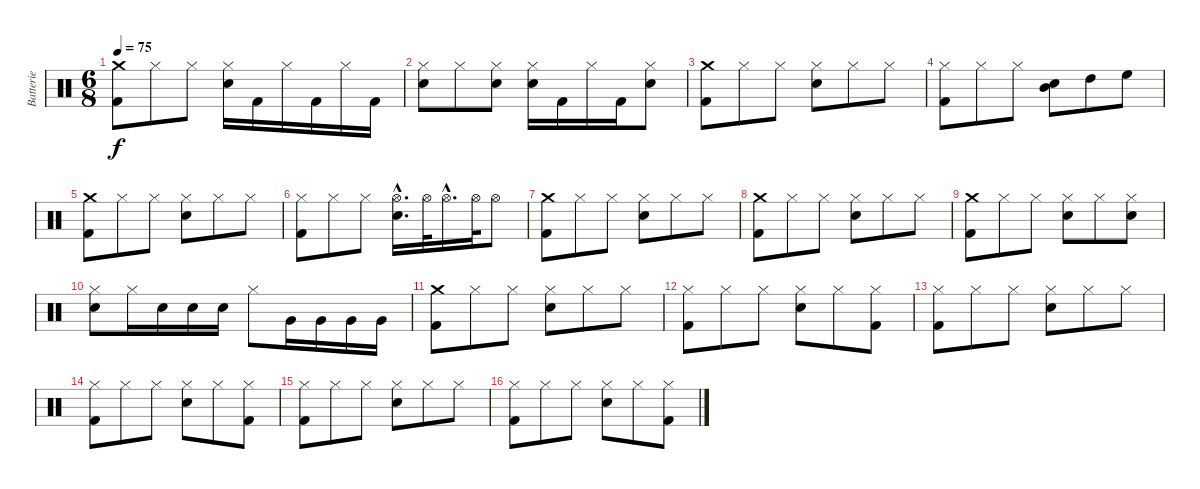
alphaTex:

\track ("Batterie" "Batterie") {instrument percussion}
\staff {score}
\articulation defaults
\ts (6 8)
\tempo 75
\clef neutral
\ks c
("Kick (hit) 2" "Crash medium (hit)").8{dy f} "Hi-Hat (closed)".8 "Hi-Hat (closed)".8 ("Snare (hit) 2" "Hi-Hat (closed)").16 "Kick (hit) 2".16 "Hi-Hat (closed)".16 "Kick (hit) 2".16 "Hi-Hat (closed)".16 "Kick (hit) 2".16 |
("Snare (hit) 2" "Hi-Hat (closed)").8 "Hi-Hat (closed)".8 ("Snare (hit) 2" "Hi-Hat (closed)").8 ("Snare (hit) 2" "Hi-Hat (closed)").16 "Kick (hit) 2".16 "Hi-Hat (closed)".16 "Kick (hit) 2".16 ("Snare (hit) 2" "Hi-Hat (closed)").8 |
("Kick (hit) 2" "Crash medium (hit)").8 "Hi-Hat (closed)".8 "Hi-Hat (closed)".8 ("Snare (hit) 2" "Hi-Hat (closed)").8 "Hi-Hat (closed)".8 "Hi-Hat (closed)".8 |
("Kick (hit) 2" "Hi-Hat (closed)").8 "Hi-Hat (closed)".8 "Hi-Hat (closed)".8 ("Snare (hit) 2" "Mid Tom (hit)").8 "High Tom (hit)".8 "High Floor Tom (hit)".8 |
("Kick (hit) 2" "Crash medium (hit)").8 "Hi-Hat (closed)".8 "Hi-Hat (closed)".8 ("Snare (hit) 2" "Hi-Hat (closed)").8 "Hi-Hat (closed)".8 "Hi-Hat (closed)".8 |
("Kick (hit) 2" "Hi-Hat (closed)").8 "Hi-Hat (closed)".8 "Hi-Hat (closed)".8 ("Snare (hit) 2"{hac} "Hi-Hat (open)"{hac}).16{d} "Hi-Hat (open)".32 "Hi-Hat (open)"{hac}.16{d} "Hi-Hat (open)".32 "Hi-Hat (open)".8 |
("Kick (hit) 2" "Crash medium (hit)").8 "Hi-Hat (closed)".8 "Hi-Hat (closed)".8 ("Snare (hit) 2" "Hi-Hat (closed)").8 "Hi-Hat (closed)".8 "Hi-Hat (closed)".8 |
("Kick (hit) 2" "Crash medium (hit)").8 "Hi-Hat (closed)".8 "Hi-Hat (closed)".8 ("Snare (hit) 2" "Hi-Hat (closed)").8 "Hi-Hat (closed)".8 "Hi-Hat (closed)".8 |
("Kick (hit) 2" "Crash medium (hit)").8 "Hi-Hat (closed)".8 "Hi-Hat (closed)".8 ("Snare (hit) 2" "Hi-Hat (closed)").8 "Hi-Hat (closed)".8 ("Snare (hit) 2" "Hi-Hat (closed)").8 |
("Snare (hit) 2" "Hi-Hat (closed)").8 "Hi-Hat (closed)".16 "Snare (hit) 2".16 "Snare (hit) 2".16 "Snare (hit) 2".16 "Hi-Hat (closed)".8 "Very Low Tom (hit)".16 "Very Low Tom (hit)".16 "Very Low Tom (hit)".16 "Very Low Tom (hit)".16 |
("Kick (hit) 2" "Crash medium (hit)").8 "Hi-Hat (closed)".8 "Hi-Hat (closed)".8 ("Snare (hit) 2" "Hi-Hat (closed)").8 "Hi-Hat (closed)".8 "Hi-Hat (closed)".8 |
("Kick (hit) 2" "Hi-Hat (closed)").8 "Hi-Hat (closed)".8 "Hi-Hat (closed)".8 ("Snare (hit) 2" "Hi-Hat (closed)").8 "Hi-Hat (closed)".8 ("Kick (hit) 2" "Hi-Hat (closed)").8 |
("Kick (hit) 2" "Hi-Hat (closed)").8 "Hi-Hat (closed)".8 "Hi-Hat (closed)".8 ("Snare (hit) 2" "Hi-Hat (closed)").8 "Hi-Hat (closed)".8 "Hi-Hat (closed)".8 |
("Kick (hit) 2" "Hi-Hat (closed)").8 "Hi-Hat (closed)".8 "Hi-Hat (closed)".8 ("Snare (hit) 2" "Hi-Hat (closed)").8 "Hi-Hat (closed)".8 ("Kick (hit) 2" "Hi-Hat (closed)").8 |
("Kick (hit) 2" "Hi-Hat (closed)").8 "Hi-Hat (closed)".8 "Hi-Hat (closed)".8 ("Snare (hit) 2" "Hi-Hat (closed)").8 "Hi-Hat (closed)".8 "Hi-Hat (closed)".8 |
("Kick (hit) 2" "Hi-Hat (closed)").8 "Hi-Hat (closed)".8 "Hi-Hat (closed)".8 ("Snare (hit) 2" "Hi-Hat (closed)").8 "Hi-Hat (closed)".8 ("Kick (hit) 2" "Hi-Hat (closed)").8
